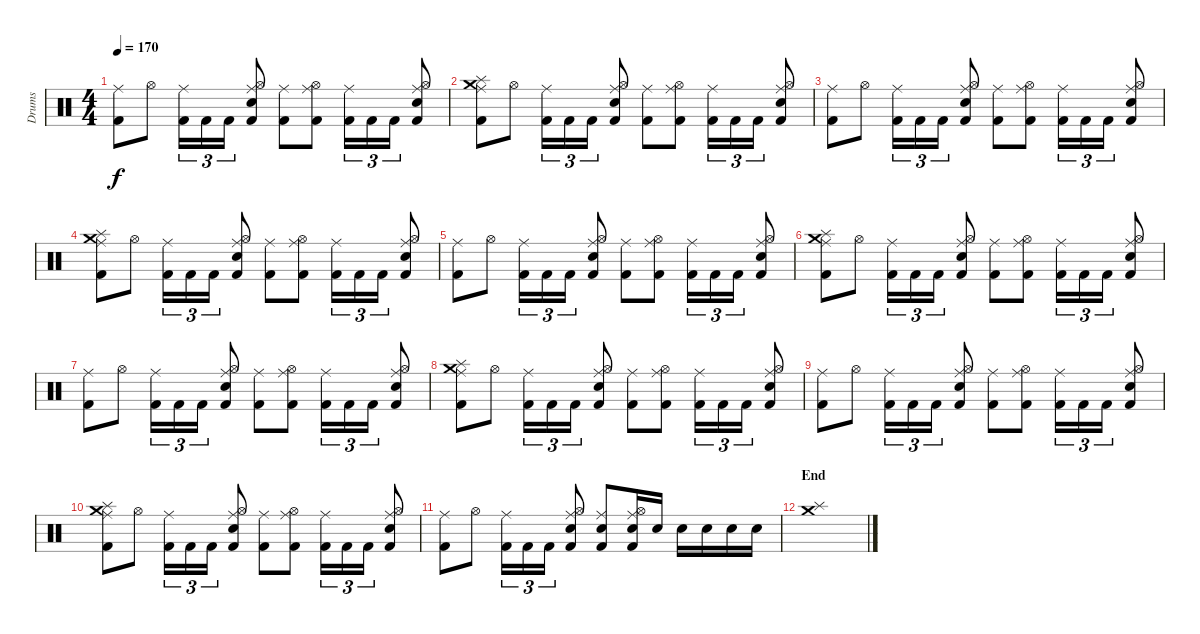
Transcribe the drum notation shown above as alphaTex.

\track ("Drums" "Drums") {instrument percussion}
\staff {score}
\articulation defaults
\ts (4 4)
\tempo 170
\clef neutral
\ks c
("Kick (hit) 2" "Ride (middle)").8{dy f} "Hi-Hat (open)".8 ("Kick (hit) 2" "Ride (middle)").16{tu (3 2)} "Kick (hit) 2".16{tu (3 2)} "Kick (hit) 2".16{tu (3 2)} ("Kick (hit) 2" "Snare (hit) 2" "Hi-Hat (open)" "Ride (middle)").8 ("Kick (hit) 2" "Ride (middle)").8 ("Kick (hit) 2" "Hi-Hat (open)" "Ride (middle)").8 ("Kick (hit) 2" "Ride (middle)").16{tu (3 2)} "Kick (hit) 2".16{tu (3 2)} "Kick (hit) 2".16{tu (3 2)} ("Kick (hit) 2" "Snare (hit) 2" "Hi-Hat (open)" "Ride (middle)").8 |
("Kick (hit) 2" "Splash (hit)" "Crash medium (hit)" "Ride (middle)").8 "Hi-Hat (open)".8 ("Kick (hit) 2" "Ride (middle)").16{tu (3 2)} "Kick (hit) 2".16{tu (3 2)} "Kick (hit) 2".16{tu (3 2)} ("Kick (hit) 2" "Snare (hit) 2" "Hi-Hat (open)" "Ride (middle)").8 ("Kick (hit) 2" "Ride (middle)").8 ("Kick (hit) 2" "Hi-Hat (open)" "Ride (middle)").8 ("Kick (hit) 2" "Ride (middle)").16{tu (3 2)} "Kick (hit) 2".16{tu (3 2)} "Kick (hit) 2".16{tu (3 2)} ("Kick (hit) 2" "Snare (hit) 2" "Hi-Hat (open)" "Ride (middle)").8 |
("Kick (hit) 2" "Ride (middle)").8 "Hi-Hat (open)".8 ("Kick (hit) 2" "Ride (middle)").16{tu (3 2)} "Kick (hit) 2".16{tu (3 2)} "Kick (hit) 2".16{tu (3 2)} ("Kick (hit) 2" "Snare (hit) 2" "Hi-Hat (open)" "Ride (middle)").8 ("Kick (hit) 2" "Ride (middle)").8 ("Kick (hit) 2" "Hi-Hat (open)" "Ride (middle)").8 ("Kick (hit) 2" "Ride (middle)").16{tu (3 2)} "Kick (hit) 2".16{tu (3 2)} "Kick (hit) 2".16{tu (3 2)} ("Kick (hit) 2" "Snare (hit) 2" "Hi-Hat (open)" "Ride (middle)").8 |
("Kick (hit) 2" "Splash (hit)" "Crash medium (hit)" "Ride (middle)").8 "Hi-Hat (open)".8 ("Kick (hit) 2" "Ride (middle)").16{tu (3 2)} "Kick (hit) 2".16{tu (3 2)} "Kick (hit) 2".16{tu (3 2)} ("Kick (hit) 2" "Snare (hit) 2" "Hi-Hat (open)" "Ride (middle)").8 ("Kick (hit) 2" "Ride (middle)").8 ("Kick (hit) 2" "Hi-Hat (open)" "Ride (middle)").8 ("Kick (hit) 2" "Ride (middle)").16{tu (3 2)} "Kick (hit) 2".16{tu (3 2)} "Kick (hit) 2".16{tu (3 2)} ("Kick (hit) 2" "Snare (hit) 2" "Hi-Hat (open)" "Ride (middle)").8 |
("Kick (hit) 2" "Ride (middle)").8 "Hi-Hat (open)".8 ("Kick (hit) 2" "Ride (middle)").16{tu (3 2)} "Kick (hit) 2".16{tu (3 2)} "Kick (hit) 2".16{tu (3 2)} ("Kick (hit) 2" "Snare (hit) 2" "Hi-Hat (open)" "Ride (middle)").8 ("Kick (hit) 2" "Ride (middle)").8 ("Kick (hit) 2" "Hi-Hat (open)" "Ride (middle)").8 ("Kick (hit) 2" "Ride (middle)").16{tu (3 2)} "Kick (hit) 2".16{tu (3 2)} "Kick (hit) 2".16{tu (3 2)} ("Kick (hit) 2" "Snare (hit) 2" "Hi-Hat (open)" "Ride (middle)").8 |
("Kick (hit) 2" "Splash (hit)" "Crash medium (hit)" "Ride (middle)").8 "Hi-Hat (open)".8 ("Kick (hit) 2" "Ride (middle)").16{tu (3 2)} "Kick (hit) 2".16{tu (3 2)} "Kick (hit) 2".16{tu (3 2)} ("Kick (hit) 2" "Snare (hit) 2" "Hi-Hat (open)" "Ride (middle)").8 ("Kick (hit) 2" "Ride (middle)").8 ("Kick (hit) 2" "Hi-Hat (open)" "Ride (middle)").8 ("Kick (hit) 2" "Ride (middle)").16{tu (3 2)} "Kick (hit) 2".16{tu (3 2)} "Kick (hit) 2".16{tu (3 2)} ("Kick (hit) 2" "Snare (hit) 2" "Hi-Hat (open)" "Ride (middle)").8 |
("Kick (hit) 2" "Ride (middle)").8 "Hi-Hat (open)".8 ("Kick (hit) 2" "Ride (middle)").16{tu (3 2)} "Kick (hit) 2".16{tu (3 2)} "Kick (hit) 2".16{tu (3 2)} ("Kick (hit) 2" "Snare (hit) 2" "Hi-Hat (open)" "Ride (middle)").8 ("Kick (hit) 2" "Ride (middle)").8 ("Kick (hit) 2" "Hi-Hat (open)" "Ride (middle)").8 ("Kick (hit) 2" "Ride (middle)").16{tu (3 2)} "Kick (hit) 2".16{tu (3 2)} "Kick (hit) 2".16{tu (3 2)} ("Kick (hit) 2" "Snare (hit) 2" "Hi-Hat (open)" "Ride (middle)").8 |
("Kick (hit) 2" "Splash (hit)" "Crash medium (hit)" "Ride (middle)").8 "Hi-Hat (open)".8 ("Kick (hit) 2" "Ride (middle)").16{tu (3 2)} "Kick (hit) 2".16{tu (3 2)} "Kick (hit) 2".16{tu (3 2)} ("Kick (hit) 2" "Snare (hit) 2" "Hi-Hat (open)" "Ride (middle)").8 ("Kick (hit) 2" "Ride (middle)").8 ("Kick (hit) 2" "Hi-Hat (open)" "Ride (middle)").8 ("Kick (hit) 2" "Ride (middle)").16{tu (3 2)} "Kick (hit) 2".16{tu (3 2)} "Kick (hit) 2".16{tu (3 2)} ("Kick (hit) 2" "Snare (hit) 2" "Hi-Hat (open)" "Ride (middle)").8 |
("Kick (hit) 2" "Ride (middle)").8 "Hi-Hat (open)".8 ("Kick (hit) 2" "Ride (middle)").16{tu (3 2)} "Kick (hit) 2".16{tu (3 2)} "Kick (hit) 2".16{tu (3 2)} ("Kick (hit) 2" "Snare (hit) 2" "Hi-Hat (open)" "Ride (middle)").8 ("Kick (hit) 2" "Ride (middle)").8 ("Kick (hit) 2" "Hi-Hat (open)" "Ride (middle)").8 ("Kick (hit) 2" "Ride (middle)").16{tu (3 2)} "Kick (hit) 2".16{tu (3 2)} "Kick (hit) 2".16{tu (3 2)} ("Kick (hit) 2" "Snare (hit) 2" "Hi-Hat (open)" "Ride (middle)").8 |
("Kick (hit) 2" "Splash (hit)" "Crash medium (hit)" "Ride (middle)").8 "Hi-Hat (open)".8 ("Kick (hit) 2" "Ride (middle)").16{tu (3 2)} "Kick (hit) 2".16{tu (3 2)} "Kick (hit) 2".16{tu (3 2)} ("Kick (hit) 2" "Snare (hit) 2" "Hi-Hat (open)" "Ride (middle)").8 ("Kick (hit) 2" "Ride (middle)").8 ("Kick (hit) 2" "Hi-Hat (open)" "Ride (middle)").8 ("Kick (hit) 2" "Ride (middle)").16{tu (3 2)} "Kick (hit) 2".16{tu (3 2)} "Kick (hit) 2".16{tu (3 2)} ("Kick (hit) 2" "Snare (hit) 2" "Hi-Hat (open)" "Ride (middle)").8 |
("Kick (hit) 2" "Ride (middle)").8 "Hi-Hat (open)".8 ("Kick (hit) 2" "Ride (middle)").16{tu (3 2)} "Kick (hit) 2".16{tu (3 2)} "Kick (hit) 2".16{tu (3 2)} ("Kick (hit) 2" "Snare (hit) 2" "Hi-Hat (open)" "Ride (middle)").8 ("Kick (hit) 2" "Snare (hit) 2" "Ride (middle)").8 ("Kick (hit) 2" "Snare (hit) 2" "Hi-Hat (open)" "Ride (middle)").16 "Snare (hit) 2".16 "Snare (hit) 2".16 "Snare (hit) 2".16 "Snare (hit) 2".16 "Snare (hit) 2".16 |
\section ("" "End")
("Splash (hit)" "Crash medium (hit)").1
